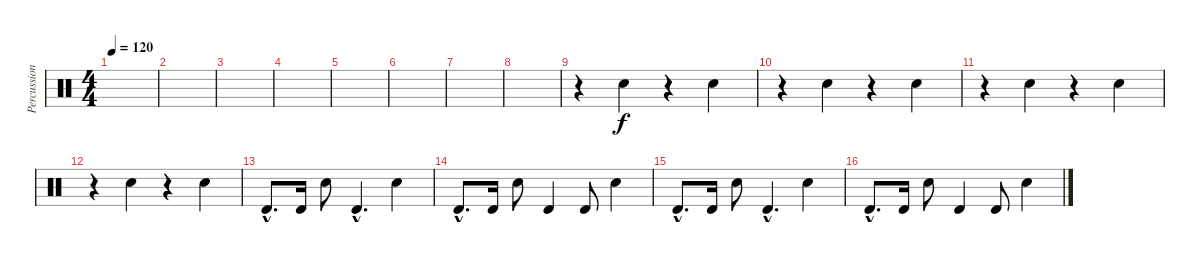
\track ("Percussion" "Percussion") {instrument percussion}
\staff {score}
\articulation defaults
\ts (4 4)
\tempo 120
\clef neutral
\ks c
|
|
|
|
|
|
|
|
r.4 "Hand Clap (hit)".4 r.4 "Hand Clap (hit)".4 |
r.4 "Hand Clap (hit)".4 r.4 "Hand Clap (hit)".4 |
r.4 "Hand Clap (hit)".4 r.4 "Hand Clap (hit)".4 |
r.4 "Hand Clap (hit)".4 r.4 "Hand Clap (hit)".4 |
"Timbale high (hit)"{hac}.8{d} "Timbale high (hit)".16 "Hand Clap (hit)".8 "Timbale high (hit)"{hac}.4{d} "Hand Clap (hit)".4 |
"Timbale high (hit)"{hac}.8{d} "Timbale high (hit)".16 "Hand Clap (hit)".8 "Timbale high (hit)".4 "Timbale high (hit)".8 "Hand Clap (hit)".4 |
"Timbale high (hit)"{hac}.8{d} "Timbale high (hit)".16 "Hand Clap (hit)".8 "Timbale high (hit)"{hac}.4{d} "Hand Clap (hit)".4 |
"Timbale high (hit)"{hac}.8{d} "Timbale high (hit)".16 "Hand Clap (hit)".8 "Timbale high (hit)".4 "Timbale high (hit)".8 "Hand Clap (hit)".4
